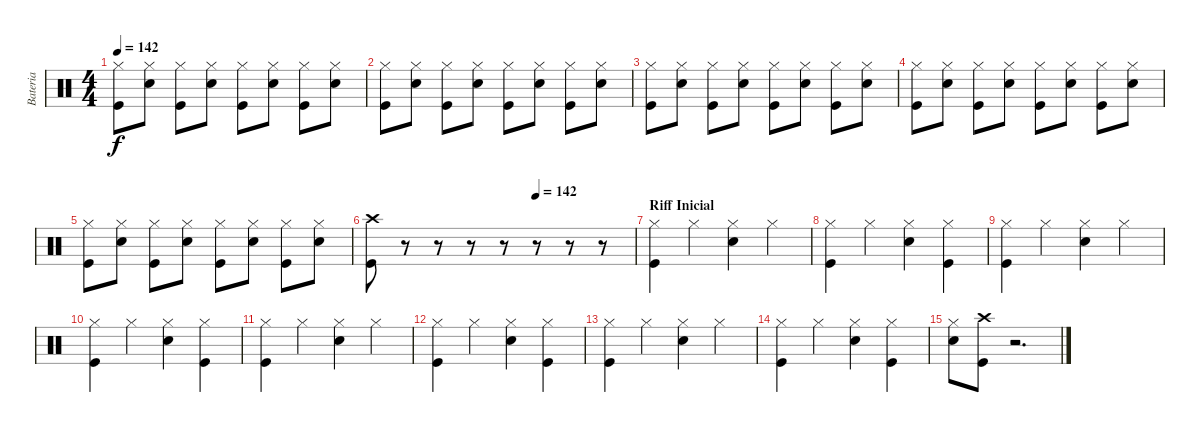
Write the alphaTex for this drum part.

\track ("Bateria" "Bateria") {instrument percussion}
\staff {score}
\articulation defaults
\ts (4 4)
\tempo 142
\clef neutral
\ks c
("Hi-Hat (closed)" "Kick (hit)").8{dy f} ("Hi-Hat (closed)" "Snare (hit) 2").8 ("Hi-Hat (closed)" "Kick (hit)").8 ("Hi-Hat (closed)" "Snare (hit) 2").8 ("Hi-Hat (closed)" "Kick (hit)").8 ("Hi-Hat (closed)" "Snare (hit) 2").8 ("Hi-Hat (closed)" "Kick (hit)").8 ("Hi-Hat (closed)" "Snare (hit) 2").8 |
("Hi-Hat (closed)" "Kick (hit)").8 ("Hi-Hat (closed)" "Snare (hit) 2").8 ("Hi-Hat (closed)" "Kick (hit)").8 ("Hi-Hat (closed)" "Snare (hit) 2").8 ("Hi-Hat (closed)" "Kick (hit)").8 ("Hi-Hat (closed)" "Snare (hit) 2").8 ("Hi-Hat (closed)" "Kick (hit)").8 ("Hi-Hat (closed)" "Snare (hit) 2").8 |
("Hi-Hat (closed)" "Kick (hit)").8 ("Hi-Hat (closed)" "Snare (hit) 2").8 ("Hi-Hat (closed)" "Kick (hit)").8 ("Hi-Hat (closed)" "Snare (hit) 2").8 ("Hi-Hat (closed)" "Kick (hit)").8 ("Hi-Hat (closed)" "Snare (hit) 2").8 ("Hi-Hat (closed)" "Kick (hit)").8 ("Hi-Hat (closed)" "Snare (hit) 2").8 |
("Hi-Hat (closed)" "Kick (hit)").8 ("Hi-Hat (closed)" "Snare (hit) 2").8 ("Hi-Hat (closed)" "Kick (hit)").8 ("Hi-Hat (closed)" "Snare (hit) 2").8 ("Hi-Hat (closed)" "Kick (hit)").8 ("Hi-Hat (closed)" "Snare (hit) 2").8 ("Hi-Hat (closed)" "Kick (hit)").8 ("Hi-Hat (closed)" "Snare (hit) 2").8 |
("Hi-Hat (closed)" "Kick (hit)").8 ("Hi-Hat (closed)" "Snare (hit) 2").8 ("Hi-Hat (closed)" "Kick (hit)").8 ("Hi-Hat (closed)" "Snare (hit) 2").8 ("Hi-Hat (closed)" "Kick (hit)").8 ("Hi-Hat (closed)" "Snare (hit) 2").8 ("Hi-Hat (closed)" "Kick (hit)").8 ("Hi-Hat (closed)" "Snare (hit) 2").8 |
\tempo (142 0.625)
("Crash high (hit)" "Kick (hit)").8 r.8 r.8 r.8 r.8 r.8 r.8 r.8 |
\section ("" "Riff Inicial")
("Hi-Hat (closed)" "Kick (hit)").4 "Hi-Hat (closed)".4 ("Hi-Hat (closed)" "Snare (hit) 2").4 "Hi-Hat (closed)".4 |
("Hi-Hat (closed)" "Kick (hit)").4 "Hi-Hat (closed)".4 ("Hi-Hat (closed)" "Snare (hit) 2").4 ("Hi-Hat (closed)" "Kick (hit)").4 |
("Hi-Hat (closed)" "Kick (hit)").4 "Hi-Hat (closed)".4 ("Hi-Hat (closed)" "Snare (hit) 2").4 "Hi-Hat (closed)".4 |
("Hi-Hat (closed)" "Kick (hit)").4 "Hi-Hat (closed)".4 ("Hi-Hat (closed)" "Snare (hit) 2").4 ("Hi-Hat (closed)" "Kick (hit)").4 |
("Hi-Hat (closed)" "Kick (hit)").4 "Hi-Hat (closed)".4 ("Hi-Hat (closed)" "Snare (hit) 2").4 "Hi-Hat (closed)".4 |
("Hi-Hat (closed)" "Kick (hit)").4 "Hi-Hat (closed)".4 ("Hi-Hat (closed)" "Snare (hit) 2").4 ("Hi-Hat (closed)" "Kick (hit)").4 |
("Hi-Hat (closed)" "Kick (hit)").4 "Hi-Hat (closed)".4 ("Hi-Hat (closed)" "Snare (hit) 2").4 "Hi-Hat (closed)".4 |
("Hi-Hat (closed)" "Kick (hit)").4 "Hi-Hat (closed)".4 ("Hi-Hat (closed)" "Snare (hit) 2").4 ("Hi-Hat (closed)" "Kick (hit)").4 |
("Hi-Hat (closed)" "Snare (hit) 2").8 ("Crash high (hit)" "Kick (hit)").8 r.2{d}
